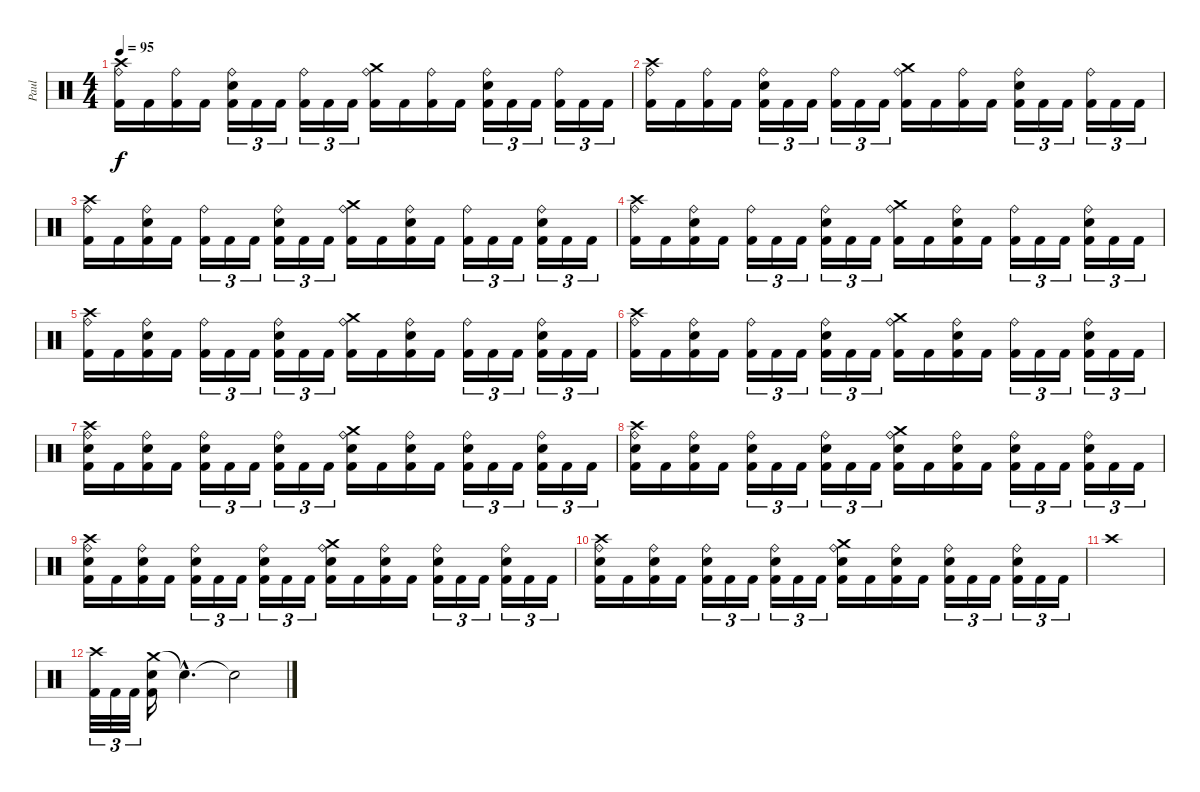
\track ("Paul" "Paul") {instrument percussion}
\staff {score}
\articulation defaults
\ts (4 4)
\tempo 95
\clef neutral
\ks c
("Crash high (hit)" "Ride (bell)" "Kick (hit) 2").16{dy f} "Kick (hit) 2".16 ("Ride (bell)" "Kick (hit) 2").16 "Kick (hit) 2".16 ("Ride (bell)" "Snare (hit) 2" "Kick (hit) 2").16{tu (3 2)} "Kick (hit) 2".16{tu (3 2)} "Kick (hit) 2".16{tu (3 2)} ("Ride (bell)" "Kick (hit) 2").16{tu (3 2)} "Kick (hit) 2".16{tu (3 2)} "Kick (hit) 2".16{tu (3 2)} ("Crash medium (hit)" "Ride (bell)" "Kick (hit) 2").16 "Kick (hit) 2".16 ("Ride (bell)" "Kick (hit) 2").16 "Kick (hit) 2".16 ("Ride (bell)" "Snare (hit) 2" "Kick (hit) 2").16{tu (3 2)} "Kick (hit) 2".16{tu (3 2)} "Kick (hit) 2".16{tu (3 2)} ("Ride (bell)" "Kick (hit) 2").16{tu (3 2)} "Kick (hit) 2".16{tu (3 2)} "Kick (hit) 2".16{tu (3 2)} |
("Crash high (hit)" "Ride (bell)" "Kick (hit) 2").16 "Kick (hit) 2".16 ("Ride (bell)" "Kick (hit) 2").16 "Kick (hit) 2".16 ("Ride (bell)" "Snare (hit) 2" "Kick (hit) 2").16{tu (3 2)} "Kick (hit) 2".16{tu (3 2)} "Kick (hit) 2".16{tu (3 2)} ("Ride (bell)" "Kick (hit) 2").16{tu (3 2)} "Kick (hit) 2".16{tu (3 2)} "Kick (hit) 2".16{tu (3 2)} ("Crash medium (hit)" "Ride (bell)" "Kick (hit) 2").16 "Kick (hit) 2".16 ("Ride (bell)" "Kick (hit) 2").16 "Kick (hit) 2".16 ("Ride (bell)" "Snare (hit) 2" "Kick (hit) 2").16{tu (3 2)} "Kick (hit) 2".16{tu (3 2)} "Kick (hit) 2".16{tu (3 2)} ("Ride (bell)" "Kick (hit) 2").16{tu (3 2)} "Kick (hit) 2".16{tu (3 2)} "Kick (hit) 2".16{tu (3 2)} |
("Crash high (hit)" "Ride (bell)" "Kick (hit) 2").16 "Kick (hit) 2".16 ("Ride (bell)" "Snare (hit) 2" "Kick (hit) 2").16 "Kick (hit) 2".16 ("Ride (bell)" "Kick (hit) 2").16{tu (3 2)} "Kick (hit) 2".16{tu (3 2)} "Kick (hit) 2".16{tu (3 2)} ("Ride (bell)" "Snare (hit) 2" "Kick (hit) 2").16{tu (3 2)} "Kick (hit) 2".16{tu (3 2)} "Kick (hit) 2".16{tu (3 2)} ("Crash medium (hit)" "Ride (bell)" "Kick (hit) 2").16 "Kick (hit) 2".16 ("Ride (bell)" "Snare (hit) 2" "Kick (hit) 2").16 "Kick (hit) 2".16 ("Ride (bell)" "Kick (hit) 2").16{tu (3 2)} "Kick (hit) 2".16{tu (3 2)} "Kick (hit) 2".16{tu (3 2)} ("Ride (bell)" "Snare (hit) 2" "Kick (hit) 2").16{tu (3 2)} "Kick (hit) 2".16{tu (3 2)} "Kick (hit) 2".16{tu (3 2)} |
("Crash high (hit)" "Ride (bell)" "Kick (hit) 2").16 "Kick (hit) 2".16 ("Ride (bell)" "Snare (hit) 2" "Kick (hit) 2").16 "Kick (hit) 2".16 ("Ride (bell)" "Kick (hit) 2").16{tu (3 2)} "Kick (hit) 2".16{tu (3 2)} "Kick (hit) 2".16{tu (3 2)} ("Ride (bell)" "Snare (hit) 2" "Kick (hit) 2").16{tu (3 2)} "Kick (hit) 2".16{tu (3 2)} "Kick (hit) 2".16{tu (3 2)} ("Crash medium (hit)" "Ride (bell)" "Kick (hit) 2").16 "Kick (hit) 2".16 ("Ride (bell)" "Snare (hit) 2" "Kick (hit) 2").16 "Kick (hit) 2".16 ("Ride (bell)" "Kick (hit) 2").16{tu (3 2)} "Kick (hit) 2".16{tu (3 2)} "Kick (hit) 2".16{tu (3 2)} ("Ride (bell)" "Snare (hit) 2" "Kick (hit) 2").16{tu (3 2)} "Kick (hit) 2".16{tu (3 2)} "Kick (hit) 2".16{tu (3 2)} |
("Crash high (hit)" "Ride (bell)" "Kick (hit) 2").16 "Kick (hit) 2".16 ("Ride (bell)" "Snare (hit) 2" "Kick (hit) 2").16 "Kick (hit) 2".16 ("Ride (bell)" "Kick (hit) 2").16{tu (3 2)} "Kick (hit) 2".16{tu (3 2)} "Kick (hit) 2".16{tu (3 2)} ("Ride (bell)" "Snare (hit) 2" "Kick (hit) 2").16{tu (3 2)} "Kick (hit) 2".16{tu (3 2)} "Kick (hit) 2".16{tu (3 2)} ("Crash medium (hit)" "Ride (bell)" "Kick (hit) 2").16 "Kick (hit) 2".16 ("Ride (bell)" "Snare (hit) 2" "Kick (hit) 2").16 "Kick (hit) 2".16 ("Ride (bell)" "Kick (hit) 2").16{tu (3 2)} "Kick (hit) 2".16{tu (3 2)} "Kick (hit) 2".16{tu (3 2)} ("Ride (bell)" "Snare (hit) 2" "Kick (hit) 2").16{tu (3 2)} "Kick (hit) 2".16{tu (3 2)} "Kick (hit) 2".16{tu (3 2)} |
("Crash high (hit)" "Ride (bell)" "Kick (hit) 2").16 "Kick (hit) 2".16 ("Ride (bell)" "Snare (hit) 2" "Kick (hit) 2").16 "Kick (hit) 2".16 ("Ride (bell)" "Kick (hit) 2").16{tu (3 2)} "Kick (hit) 2".16{tu (3 2)} "Kick (hit) 2".16{tu (3 2)} ("Ride (bell)" "Snare (hit) 2" "Kick (hit) 2").16{tu (3 2)} "Kick (hit) 2".16{tu (3 2)} "Kick (hit) 2".16{tu (3 2)} ("Crash medium (hit)" "Ride (bell)" "Kick (hit) 2").16 "Kick (hit) 2".16 ("Ride (bell)" "Snare (hit) 2" "Kick (hit) 2").16 "Kick (hit) 2".16 ("Ride (bell)" "Kick (hit) 2").16{tu (3 2)} "Kick (hit) 2".16{tu (3 2)} "Kick (hit) 2".16{tu (3 2)} ("Ride (bell)" "Snare (hit) 2" "Kick (hit) 2").16{tu (3 2)} "Kick (hit) 2".16{tu (3 2)} "Kick (hit) 2".16{tu (3 2)} |
("Crash high (hit)" "Ride (bell)" "Snare (hit) 2" "Kick (hit) 2").16 "Kick (hit) 2".16 ("Ride (bell)" "Snare (hit) 2" "Kick (hit) 2").16 "Kick (hit) 2".16 ("Ride (bell)" "Snare (hit) 2" "Kick (hit) 2").16{tu (3 2)} "Kick (hit) 2".16{tu (3 2)} "Kick (hit) 2".16{tu (3 2)} ("Ride (bell)" "Snare (hit) 2" "Kick (hit) 2").16{tu (3 2)} "Kick (hit) 2".16{tu (3 2)} "Kick (hit) 2".16{tu (3 2)} ("Crash medium (hit)" "Ride (bell)" "Snare (hit) 2" "Kick (hit) 2").16 "Kick (hit) 2".16 ("Ride (bell)" "Snare (hit) 2" "Kick (hit) 2").16 "Kick (hit) 2".16 ("Ride (bell)" "Snare (hit) 2" "Kick (hit) 2").16{tu (3 2)} "Kick (hit) 2".16{tu (3 2)} "Kick (hit) 2".16{tu (3 2)} ("Ride (bell)" "Snare (hit) 2" "Kick (hit) 2").16{tu (3 2)} "Kick (hit) 2".16{tu (3 2)} "Kick (hit) 2".16{tu (3 2)} |
("Crash high (hit)" "Ride (bell)" "Snare (hit) 2" "Kick (hit) 2").16 "Kick (hit) 2".16 ("Ride (bell)" "Snare (hit) 2" "Kick (hit) 2").16 "Kick (hit) 2".16 ("Ride (bell)" "Snare (hit) 2" "Kick (hit) 2").16{tu (3 2)} "Kick (hit) 2".16{tu (3 2)} "Kick (hit) 2".16{tu (3 2)} ("Ride (bell)" "Snare (hit) 2" "Kick (hit) 2").16{tu (3 2)} "Kick (hit) 2".16{tu (3 2)} "Kick (hit) 2".16{tu (3 2)} ("Crash medium (hit)" "Ride (bell)" "Snare (hit) 2" "Kick (hit) 2").16 "Kick (hit) 2".16 ("Ride (bell)" "Snare (hit) 2" "Kick (hit) 2").16 "Kick (hit) 2".16 ("Ride (bell)" "Snare (hit) 2" "Kick (hit) 2").16{tu (3 2)} "Kick (hit) 2".16{tu (3 2)} "Kick (hit) 2".16{tu (3 2)} ("Ride (bell)" "Snare (hit) 2" "Kick (hit) 2").16{tu (3 2)} "Kick (hit) 2".16{tu (3 2)} "Kick (hit) 2".16{tu (3 2)} |
("Crash high (hit)" "Ride (bell)" "Snare (hit) 2" "Kick (hit) 2").16 "Kick (hit) 2".16 ("Ride (bell)" "Snare (hit) 2" "Kick (hit) 2").16 "Kick (hit) 2".16 ("Ride (bell)" "Snare (hit) 2" "Kick (hit) 2").16{tu (3 2)} "Kick (hit) 2".16{tu (3 2)} "Kick (hit) 2".16{tu (3 2)} ("Ride (bell)" "Snare (hit) 2" "Kick (hit) 2").16{tu (3 2)} "Kick (hit) 2".16{tu (3 2)} "Kick (hit) 2".16{tu (3 2)} ("Crash medium (hit)" "Ride (bell)" "Snare (hit) 2" "Kick (hit) 2").16 "Kick (hit) 2".16 ("Ride (bell)" "Snare (hit) 2" "Kick (hit) 2").16 "Kick (hit) 2".16 ("Ride (bell)" "Snare (hit) 2" "Kick (hit) 2").16{tu (3 2)} "Kick (hit) 2".16{tu (3 2)} "Kick (hit) 2".16{tu (3 2)} ("Ride (bell)" "Snare (hit) 2" "Kick (hit) 2").16{tu (3 2)} "Kick (hit) 2".16{tu (3 2)} "Kick (hit) 2".16{tu (3 2)} |
("Crash high (hit)" "Ride (bell)" "Snare (hit) 2" "Kick (hit) 2").16 "Kick (hit) 2".16 ("Ride (bell)" "Snare (hit) 2" "Kick (hit) 2").16 "Kick (hit) 2".16 ("Ride (bell)" "Snare (hit) 2" "Kick (hit) 2").16{tu (3 2)} "Kick (hit) 2".16{tu (3 2)} "Kick (hit) 2".16{tu (3 2)} ("Ride (bell)" "Snare (hit) 2" "Kick (hit) 2").16{tu (3 2)} "Kick (hit) 2".16{tu (3 2)} "Kick (hit) 2".16{tu (3 2)} ("Crash medium (hit)" "Ride (bell)" "Snare (hit) 2" "Kick (hit) 2").16 "Kick (hit) 2".16 ("Ride (bell)" "Snare (hit) 2" "Kick (hit) 2").16 "Kick (hit) 2".16 ("Ride (bell)" "Snare (hit) 2" "Kick (hit) 2").16{tu (3 2)} "Kick (hit) 2".16{tu (3 2)} "Kick (hit) 2".16{tu (3 2)} ("Ride (bell)" "Snare (hit) 2" "Kick (hit) 2").16{tu (3 2)} "Kick (hit) 2".16{tu (3 2)} "Kick (hit) 2".16{tu (3 2)} |
"Crash high (hit)".1 |
("Crash high (hit)" "Kick (hit) 2").32{tu (3 2)} "Kick (hit) 2".32{tu (3 2)} "Kick (hit) 2".32{tu (3 2)} ("Crash medium (hit)" "Snare (hit) 2" "Kick (hit) 2").16 "Snare (hit)"{hac t}.4{d} "Snare (hit)"{t}.2
